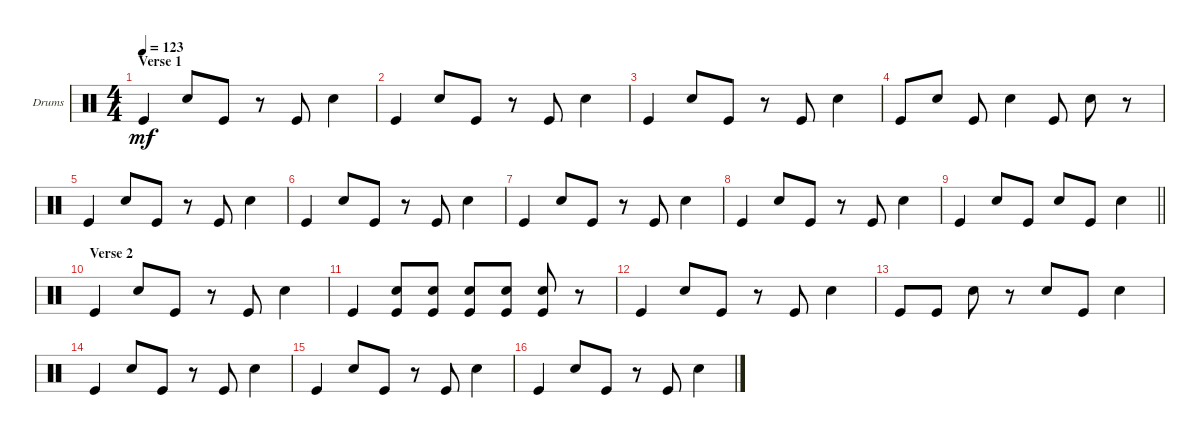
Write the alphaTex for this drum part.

\defaultSystemsLayout 4
\bracketExtendMode groupsimilarinstruments
\firstSystemTrackNameOrientation horizontal
\otherSystemsTrackNameOrientation horizontal
\track ("Drumkit" "Drums") {instrument percussion}
\staff {score}
\articulation defaults
\ts (4 4)
\section ("" "Verse 1")
\tempo 123
\clef neutral
\ks c "Kick (hit)".4{dy mf} "Snare (hit) 2".8 "Kick (hit)".8
r.8 "Kick (hit)".8 "Snare (hit) 2".4 |
"Kick (hit)".4 "Snare (hit) 2".8 "Kick (hit)".8 r.8 "Kick (hit)".8 "Snare (hit) 2".4 |
"Kick (hit)".4 "Snare (hit) 2".8 "Kick (hit)".8 r.8 "Kick (hit)".8 "Snare (hit) 2".4 |
"Kick (hit)".8 "Snare (hit) 2".8 "Kick (hit)".8 "Snare (hit) 2".4 "Kick (hit)".8 "Snare (hit) 2".8 r.8 |
"Kick (hit)".4 "Snare (hit) 2".8 "Kick (hit)".8 r.8 "Kick (hit)".8 "Snare (hit) 2".4 |
"Kick (hit)".4 "Snare (hit) 2".8 "Kick (hit)".8 r.8 "Kick (hit)".8 "Snare (hit) 2".4 |
"Kick (hit)".4 "Snare (hit) 2".8 "Kick (hit)".8 r.8 "Kick (hit)".8 "Snare (hit) 2".4 |
"Kick (hit)".4 "Snare (hit) 2".8 "Kick (hit)".8 r.8 "Kick (hit)".8 "Snare (hit) 2".4 |
\barLineRight lightlight "Kick (hit)".4 "Snare (hit) 2".8 "Kick (hit)".8 "Snare (hit) 2".8 "Kick (hit)".8 "Snare (hit) 2".4
|
\section ("" "Verse 2")
"Kick (hit)".4 "Snare (hit) 2".8 "Kick (hit)".8 r.8 "Kick (hit)".8 "Snare (hit) 2".4 |
"Kick (hit)".4 ("Kick (hit)" "Snare (hit) 2").8 ("Kick (hit)" "Snare (hit) 2").8 ("Kick (hit)" "Snare (hit) 2").8 ("Kick (hit)" "Snare (hit) 2").8 ("Kick (hit)" "Snare (hit) 2").8 r.8 |
"Kick (hit)".4 "Snare (hit) 2".8 "Kick (hit)".8 r.8 "Kick (hit)".8 "Snare (hit) 2".4 |
"Kick (hit)".8 "Kick (hit)".8 "Snare (hit) 2".8 r.8 "Snare (hit) 2".8 "Kick (hit)".8 "Snare (hit) 2".4 |
"Kick (hit)".4 "Snare (hit) 2".8 "Kick (hit)".8 r.8 "Kick (hit)".8 "Snare (hit) 2".4 |
"Kick (hit)".4 "Snare (hit) 2".8 "Kick (hit)".8 r.8 "Kick (hit)".8 "Snare (hit) 2".4 |
"Kick (hit)".4 "Snare (hit) 2".8 "Kick (hit)".8 r.8 "Kick (hit)".8 "Snare (hit) 2".4
